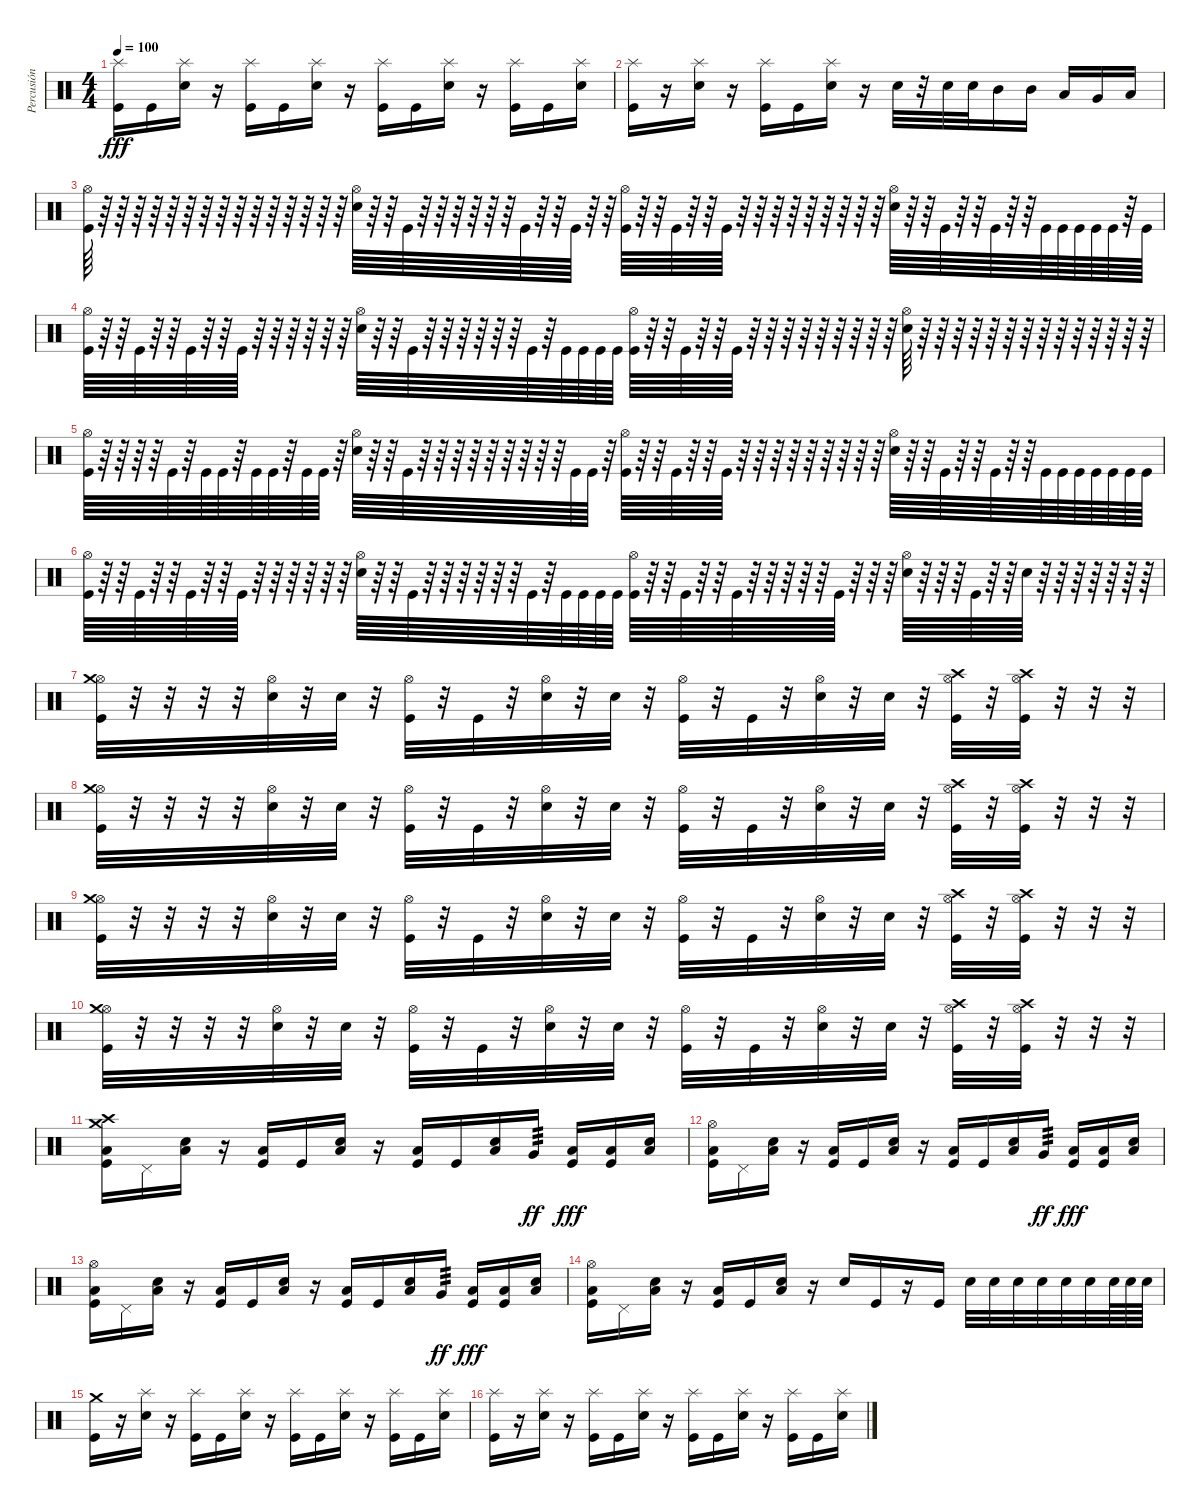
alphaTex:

\track ("Percusión" "Percusión") {instrument percussion}
\staff {score}
\articulation defaults
\ts (4 4)
\tempo 100
\clef neutral
\ks c
("Splash (hit)" "Kick (hit)").16{dy fff} "Kick (hit)".16 ("Splash (hit)" "Snare (hit) 2").16 r.16 ("Splash (hit)" "Kick (hit)").16 "Kick (hit)".16 ("Splash (hit)" "Snare (hit) 2").16 r.16 ("Splash (hit)" "Kick (hit)").16 "Kick (hit)".16 ("Splash (hit)" "Snare (hit) 2").16 r.16 ("Splash (hit)" "Kick (hit)").16 "Kick (hit)".16 ("Splash (hit)" "Snare (hit) 2").16 |
("Splash (hit)" "Kick (hit)").16 r.16 ("Splash (hit)" "Snare (hit) 2").16 r.16 ("Splash (hit)" "Kick (hit)").16 "Kick (hit)".16 ("Splash (hit)" "Snare (hit) 2").16 r.16 "Snare (hit) 2".32 r.32 "Snare (hit) 2".32 "Snare (hit) 2".32 "Mid Tom (hit)".16 "Mid Tom (hit)".16 "Low Tom (hit)".16 "Very Low Tom (hit)".16 "Low Floor Tom (hit)".16 |
("Hi-Hat (open)" "Kick (hit)").64 r.64 r.64 r.64 r.64 r.64 r.64 r.64 r.64 r.64 r.64 r.64 r.64 r.64 r.64 r.64 ("Hi-Hat (open)" "Snare (hit) 2").64 r.64 r.64 "Kick (hit)".64 r.64 r.64 r.64 r.64 r.64 r.64 "Kick (hit)".64 r.64 r.64 "Kick (hit)".64 r.64 r.64 ("Hi-Hat (open)" "Kick (hit)").64 r.64 r.64 "Kick (hit)".64 r.64 r.64 "Kick (hit)".64 r.64 r.64 r.64 r.64 r.64 r.64 r.64 r.64 r.64 ("Hi-Hat (open)" "Snare (hit) 2").64 r.64 r.64 "Kick (hit)".64 r.64 r.64 "Kick (hit)".64 r.64 r.64 "Kick (hit)".64 "Kick (hit)".64 "Kick (hit)".64 "Kick (hit)".64 "Kick (hit)".64 r.64 "Kick (hit)".64 |
("Hi-Hat (open)" "Kick (hit)").64 r.64 r.64 "Kick (hit)".64 r.64 r.64 "Kick (hit)".64 r.64 r.64 "Kick (hit)".64 r.64 r.64 r.64 r.64 r.64 r.64 ("Hi-Hat (open)" "Snare (hit) 2").64 r.64 r.64 "Kick (hit)".64 r.64 r.64 r.64 r.64 r.64 r.64 "Kick (hit)".64 r.64 "Kick (hit)".64 "Kick (hit)".64 "Kick (hit)".64 "Kick (hit)".64 ("Hi-Hat (open)" "Kick (hit)").64 r.64 r.64 "Kick (hit)".64 r.64 r.64 "Kick (hit)".64 r.64 r.64 r.64 r.64 r.64 r.64 r.64 r.64 r.64 ("Hi-Hat (open)" "Snare (hit) 2").64 r.64 r.64 r.64 r.64 r.64 r.64 r.64 r.64 r.64 r.64 r.64 r.64 r.64 r.64 |
("Hi-Hat (open)" "Kick (hit)").64 r.64 r.64 r.64 r.64 "Kick (hit)".64 r.64 "Kick (hit)".64 "Kick (hit)".64 r.64 "Kick (hit)".64 "Kick (hit)".64 r.64 "Kick (hit)".64 "Kick (hit)".64 r.64 ("Hi-Hat (open)" "Snare (hit) 2").64 r.64 r.64 "Kick (hit)".64 r.64 r.64 r.64 r.64 r.64 r.64 r.64 r.64 r.64 "Kick (hit)".64 "Kick (hit)".64 r.64 ("Hi-Hat (open)" "Kick (hit)").64 r.64 r.64 "Kick (hit)".64 r.64 r.64 "Kick (hit)".64 r.64 r.64 r.64 r.64 r.64 r.64 r.64 r.64 r.64 ("Hi-Hat (open)" "Snare (hit) 2").64 r.64 r.64 "Kick (hit)".64 r.64 r.64 "Kick (hit)".64 r.64 r.64 "Kick (hit)".64 "Kick (hit)".64 "Kick (hit)".64 "Kick (hit)".64 "Kick (hit)".64 "Kick (hit)".64 "Kick (hit)".64 |
("Hi-Hat (open)" "Kick (hit)").64 r.64 r.64 "Kick (hit)".64 r.64 r.64 "Kick (hit)".64 r.64 r.64 "Kick (hit)".64 r.64 r.64 r.64 r.64 r.64 r.64 ("Hi-Hat (open)" "Snare (hit) 2").64 r.64 r.64 "Kick (hit)".64 r.64 r.64 r.64 r.64 r.64 r.64 "Kick (hit)".64 r.64 "Kick (hit)".64 "Kick (hit)".64 "Kick (hit)".64 "Kick (hit)".64 ("Hi-Hat (open)" "Kick (hit)").64 r.64 r.64 "Kick (hit)".64 r.64 r.64 "Kick (hit)".64 r.64 r.64 r.64 r.64 r.64 "Kick (hit)".64 r.64 r.64 r.64 ("Hi-Hat (open)" "Snare (hit) 2").64 r.64 r.64 r.64 "Kick (hit)".64 r.64 r.64 "Snare (hit) 2".64 r.64 r.64 r.64 r.64 r.64 r.64 r.64 |
("Hi-Hat (open)" "Crash medium (hit)" "Kick (hit)").32 r.32 r.32 r.32 r.32 ("Hi-Hat (open)" "Snare (hit) 2").32 r.32 "Snare (hit) 2".32 r.32 ("Hi-Hat (open)" "Kick (hit)").32 r.32 "Kick (hit)".32 r.32 ("Hi-Hat (open)" "Snare (hit) 2").32 r.32 "Snare (hit) 2".32 r.32 ("Hi-Hat (open)" "Kick (hit)").32 r.32 "Kick (hit)".32 r.32 ("Hi-Hat (open)" "Snare (hit) 2").32 r.32 "Snare (hit) 2".32 r.32 ("Hi-Hat (open)" "Crash high (hit)" "Kick (hit)").32 r.32 ("Hi-Hat (open)" "Crash high (hit)" "Kick (hit)").32 r.32 r.32 r.32 |
("Hi-Hat (open)" "Crash medium (hit)" "Kick (hit)").32 r.32 r.32 r.32 r.32 ("Hi-Hat (open)" "Snare (hit) 2").32 r.32 "Snare (hit) 2".32 r.32 ("Hi-Hat (open)" "Kick (hit)").32 r.32 "Kick (hit)".32 r.32 ("Hi-Hat (open)" "Snare (hit) 2").32 r.32 "Snare (hit) 2".32 r.32 ("Hi-Hat (open)" "Kick (hit)").32 r.32 "Kick (hit)".32 r.32 ("Hi-Hat (open)" "Snare (hit) 2").32 r.32 "Snare (hit) 2".32 r.32 ("Hi-Hat (open)" "Crash high (hit)" "Kick (hit)").32 r.32 ("Hi-Hat (open)" "Crash high (hit)" "Kick (hit)").32 r.32 r.32 r.32 |
("Hi-Hat (open)" "Crash medium (hit)" "Kick (hit)").32 r.32 r.32 r.32 r.32 ("Hi-Hat (open)" "Snare (hit) 2").32 r.32 "Snare (hit) 2".32 r.32 ("Hi-Hat (open)" "Kick (hit)").32 r.32 "Kick (hit)".32 r.32 ("Hi-Hat (open)" "Snare (hit) 2").32 r.32 "Snare (hit) 2".32 r.32 ("Hi-Hat (open)" "Kick (hit)").32 r.32 "Kick (hit)".32 r.32 ("Hi-Hat (open)" "Snare (hit) 2").32 r.32 "Snare (hit) 2".32 r.32 ("Hi-Hat (open)" "Crash high (hit)" "Kick (hit)").32 r.32 ("Hi-Hat (open)" "Crash high (hit)" "Kick (hit)").32 r.32 r.32 r.32 |
("Hi-Hat (open)" "Crash medium (hit)" "Kick (hit)").32 r.32 r.32 r.32 r.32 ("Hi-Hat (open)" "Snare (hit) 2").32 r.32 "Snare (hit) 2".32 r.32 ("Hi-Hat (open)" "Kick (hit)").32 r.32 "Kick (hit)".32 r.32 ("Hi-Hat (open)" "Snare (hit) 2").32 r.32 "Snare (hit) 2".32 r.32 ("Hi-Hat (open)" "Kick (hit)").32 r.32 "Kick (hit)".32 r.32 ("Hi-Hat (open)" "Snare (hit) 2").32 r.32 "Snare (hit) 2".32 r.32 ("Hi-Hat (open)" "Crash high (hit)" "Kick (hit)").32 r.32 ("Hi-Hat (open)" "Crash high (hit)" "Kick (hit)").32 r.32 r.32 r.32 |
("Crash high (hit)" "Low Floor Tom (hit)" "Crash medium (hit)" "Kick (hit)").16 "Pedal Hi-Hat (hit)".16 ("Low Floor Tom (hit)" "Snare (hit) 2").16 r.16 ("Low Floor Tom (hit)" "Kick (hit)").16 "Kick (hit)".16 ("Low Floor Tom (hit)" "Snare (hit) 2").16 r.16 ("Low Floor Tom (hit)" "Kick (hit)").16 "Kick (hit)".16 ("Low Floor Tom (hit)" "Snare (hit) 2").16 "Very Low Tom (hit)".16{tp 3 dy ff} ("Low Floor Tom (hit)" "Kick (hit)").16{dy fff} ("Low Floor Tom (hit)" "Kick (hit)").16 ("Low Floor Tom (hit)" "Snare (hit) 2").16 |
("Hi-Hat (open)" "Low Floor Tom (hit)" "Kick (hit)").16 "Pedal Hi-Hat (hit)".16 ("Low Floor Tom (hit)" "Snare (hit) 2").16 r.16 ("Low Floor Tom (hit)" "Kick (hit)").16 "Kick (hit)".16 ("Low Floor Tom (hit)" "Snare (hit) 2").16 r.16 ("Low Floor Tom (hit)" "Kick (hit)").16 "Kick (hit)".16 ("Low Floor Tom (hit)" "Snare (hit) 2").16 "Very Low Tom (hit)".16{tp 3 dy ff} ("Low Floor Tom (hit)" "Kick (hit)").16{dy fff} ("Low Floor Tom (hit)" "Kick (hit)").16 ("Low Floor Tom (hit)" "Snare (hit) 2").16 |
("Hi-Hat (open)" "Low Floor Tom (hit)" "Kick (hit)").16 "Pedal Hi-Hat (hit)".16 ("Low Floor Tom (hit)" "Snare (hit) 2").16 r.16 ("Low Floor Tom (hit)" "Kick (hit)").16 "Kick (hit)".16 ("Low Floor Tom (hit)" "Snare (hit) 2").16 r.16 ("Low Floor Tom (hit)" "Kick (hit)").16 "Kick (hit)".16 ("Low Floor Tom (hit)" "Snare (hit) 2").16 "Very Low Tom (hit)".16{tp 3 dy ff} ("Low Floor Tom (hit)" "Kick (hit)").16{dy fff} ("Low Floor Tom (hit)" "Kick (hit)").16 ("Low Floor Tom (hit)" "Snare (hit) 2").16 |
("Hi-Hat (open)" "Low Floor Tom (hit)" "Kick (hit)").16 "Pedal Hi-Hat (hit)".16 ("Low Floor Tom (hit)" "Snare (hit) 2").16 r.16 ("Low Floor Tom (hit)" "Kick (hit)").16 "Kick (hit)".16 ("Low Floor Tom (hit)" "Snare (hit) 2").16 r.16 "Snare (hit) 2".16 "Kick (hit)".16 r.16 "Kick (hit)".16 "Snare (hit) 2".32 "Snare (hit) 2".32 "Snare (hit) 2".32 "Snare (hit) 2".32 "Snare (hit) 2".32 "Snare (hit) 2".32 "Snare (hit) 2".64 "Snare (hit) 2".64 "Snare (hit) 2".64 |
("Crash medium (hit)" "Kick (hit)").16 r.16 ("Splash (hit)" "Snare (hit) 2").16 r.16 ("Splash (hit)" "Kick (hit)").16 "Kick (hit)".16 ("Splash (hit)" "Snare (hit) 2").16 r.16 ("Splash (hit)" "Kick (hit)").16 "Kick (hit)".16 ("Splash (hit)" "Snare (hit) 2").16 r.16 ("Splash (hit)" "Kick (hit)").16 "Kick (hit)".16 ("Splash (hit)" "Snare (hit) 2").16 |
("Splash (hit)" "Kick (hit)").16 r.16 ("Splash (hit)" "Snare (hit) 2").16 r.16 ("Splash (hit)" "Kick (hit)").16 "Kick (hit)".16 ("Splash (hit)" "Snare (hit) 2").16 r.16 ("Splash (hit)" "Kick (hit)").16 "Kick (hit)".16 ("Splash (hit)" "Snare (hit) 2").16 r.16 ("Splash (hit)" "Kick (hit)").16 "Kick (hit)".16 ("Splash (hit)" "Snare (hit) 2").16
